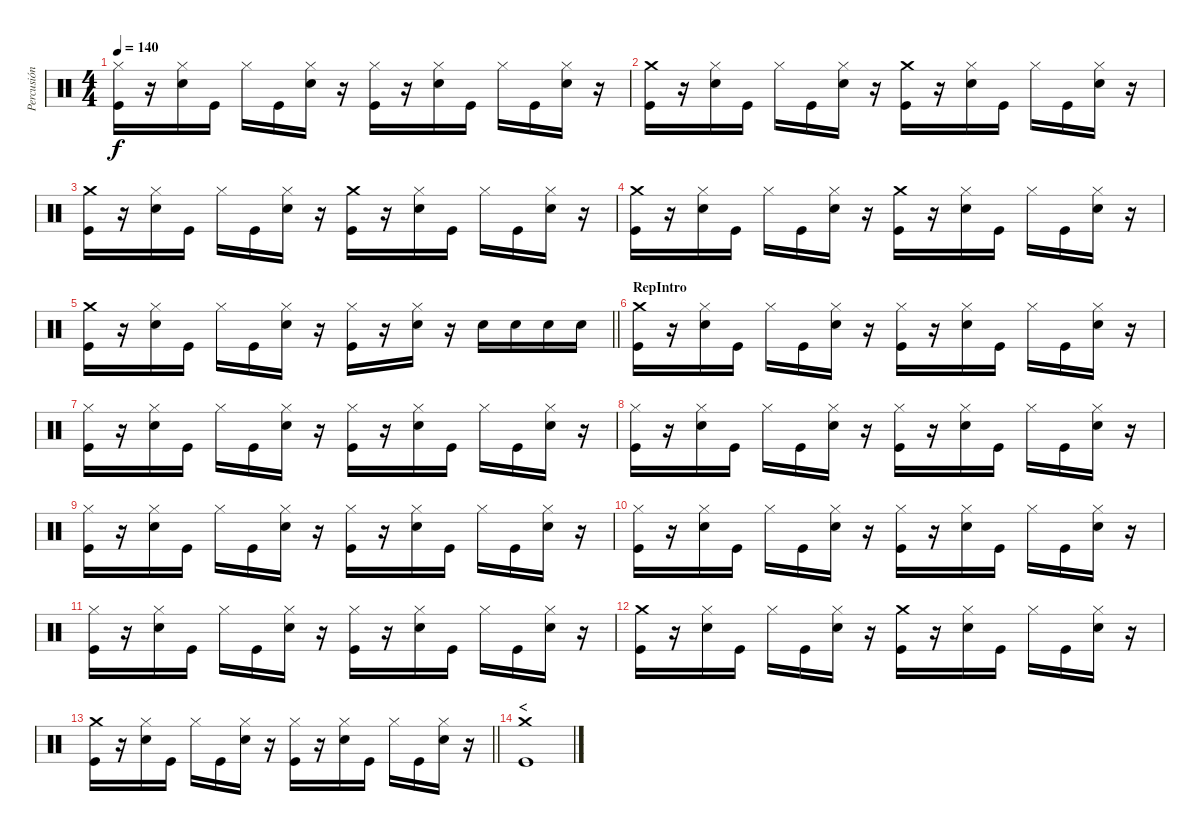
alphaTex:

\track ("Percusión" "Percusión") {instrument percussion}
\staff {score}
\articulation defaults
\ts (4 4)
\tempo 140
\clef neutral
\ks c
("Hi-Hat (closed)" "Kick (hit)").16{dy f} r.16 ("Hi-Hat (closed)" "Snare (hit) 2").16 "Kick (hit)".16 "Hi-Hat (closed)".16 "Kick (hit)".16 ("Hi-Hat (closed)" "Snare (hit) 2").16 r.16 ("Hi-Hat (closed)" "Kick (hit)").16 r.16 ("Hi-Hat (closed)" "Snare (hit) 2").16 "Kick (hit)".16 "Hi-Hat (closed)".16 "Kick (hit)".16 ("Hi-Hat (closed)" "Snare (hit) 2").16 r.16 |
("Crash medium (hit)" "Kick (hit)").16 r.16 ("Hi-Hat (closed)" "Snare (hit) 2").16 "Kick (hit)".16 "Hi-Hat (closed)".16 "Kick (hit)".16 ("Hi-Hat (closed)" "Snare (hit) 2").16 r.16 ("Crash medium (hit)" "Kick (hit)").16 r.16 ("Hi-Hat (closed)" "Snare (hit) 2").16 "Kick (hit)".16 "Hi-Hat (closed)".16 "Kick (hit)".16 ("Hi-Hat (closed)" "Snare (hit) 2").16 r.16 |
("Crash medium (hit)" "Kick (hit)").16 r.16 ("Hi-Hat (closed)" "Snare (hit) 2").16 "Kick (hit)".16 "Hi-Hat (closed)".16 "Kick (hit)".16 ("Hi-Hat (closed)" "Snare (hit) 2").16 r.16 ("Crash medium (hit)" "Kick (hit)").16 r.16 ("Hi-Hat (closed)" "Snare (hit) 2").16 "Kick (hit)".16 "Hi-Hat (closed)".16 "Kick (hit)".16 ("Hi-Hat (closed)" "Snare (hit) 2").16 r.16 |
("Crash medium (hit)" "Kick (hit)").16 r.16 ("Hi-Hat (closed)" "Snare (hit) 2").16 "Kick (hit)".16 "Hi-Hat (closed)".16 "Kick (hit)".16 ("Hi-Hat (closed)" "Snare (hit) 2").16 r.16 ("Crash medium (hit)" "Kick (hit)").16 r.16 ("Hi-Hat (closed)" "Snare (hit) 2").16 "Kick (hit)".16 "Hi-Hat (closed)".16 "Kick (hit)".16 ("Hi-Hat (closed)" "Snare (hit) 2").16 r.16 |
\barLineRight lightlight
("Crash medium (hit)" "Kick (hit)").16 r.16 ("Hi-Hat (closed)" "Snare (hit) 2").16 "Kick (hit)".16 "Hi-Hat (closed)".16 "Kick (hit)".16 ("Hi-Hat (closed)" "Snare (hit) 2").16 r.16 ("Hi-Hat (closed)" "Kick (hit)").16 r.16 ("Hi-Hat (closed)" "Snare (hit) 2").16 r.16 "Snare (hit) 2".16 "Snare (hit) 2".16 "Snare (hit) 2".16 "Snare (hit) 2".16 |
\section ("" "RepIntro")
("Crash medium (hit)" "Kick (hit)").16 r.16 ("Hi-Hat (closed)" "Snare (hit) 2").16 "Kick (hit)".16 "Hi-Hat (closed)".16 "Kick (hit)".16 ("Hi-Hat (closed)" "Snare (hit) 2").16 r.16 ("Hi-Hat (closed)" "Kick (hit)").16 r.16 ("Hi-Hat (closed)" "Snare (hit) 2").16 "Kick (hit)".16 "Hi-Hat (closed)".16 "Kick (hit)".16 ("Hi-Hat (closed)" "Snare (hit) 2").16 r.16 |
("Hi-Hat (closed)" "Kick (hit)").16 r.16 ("Hi-Hat (closed)" "Snare (hit) 2").16 "Kick (hit)".16 "Hi-Hat (closed)".16 "Kick (hit)".16 ("Hi-Hat (closed)" "Snare (hit) 2").16 r.16 ("Hi-Hat (closed)" "Kick (hit)").16 r.16 ("Hi-Hat (closed)" "Snare (hit) 2").16 "Kick (hit)".16 "Hi-Hat (closed)".16 "Kick (hit)".16 ("Hi-Hat (closed)" "Snare (hit) 2").16 r.16 |
("Hi-Hat (closed)" "Kick (hit)").16 r.16 ("Hi-Hat (closed)" "Snare (hit) 2").16 "Kick (hit)".16 "Hi-Hat (closed)".16 "Kick (hit)".16 ("Hi-Hat (closed)" "Snare (hit) 2").16 r.16 ("Hi-Hat (closed)" "Kick (hit)").16 r.16 ("Hi-Hat (closed)" "Snare (hit) 2").16 "Kick (hit)".16 "Hi-Hat (closed)".16 "Kick (hit)".16 ("Hi-Hat (closed)" "Snare (hit) 2").16 r.16 |
("Hi-Hat (closed)" "Kick (hit)").16 r.16 ("Hi-Hat (closed)" "Snare (hit) 2").16 "Kick (hit)".16 "Hi-Hat (closed)".16 "Kick (hit)".16 ("Hi-Hat (closed)" "Snare (hit) 2").16 r.16 ("Hi-Hat (closed)" "Kick (hit)").16 r.16 ("Hi-Hat (closed)" "Snare (hit) 2").16 "Kick (hit)".16 "Hi-Hat (closed)".16 "Kick (hit)".16 ("Hi-Hat (closed)" "Snare (hit) 2").16 r.16 |
("Hi-Hat (closed)" "Kick (hit)").16 r.16 ("Hi-Hat (closed)" "Snare (hit) 2").16 "Kick (hit)".16 "Hi-Hat (closed)".16 "Kick (hit)".16 ("Hi-Hat (closed)" "Snare (hit) 2").16 r.16 ("Hi-Hat (closed)" "Kick (hit)").16 r.16 ("Hi-Hat (closed)" "Snare (hit) 2").16 "Kick (hit)".16 "Hi-Hat (closed)".16 "Kick (hit)".16 ("Hi-Hat (closed)" "Snare (hit) 2").16 r.16 |
("Hi-Hat (closed)" "Kick (hit)").16 r.16 ("Hi-Hat (closed)" "Snare (hit) 2").16 "Kick (hit)".16 "Hi-Hat (closed)".16 "Kick (hit)".16 ("Hi-Hat (closed)" "Snare (hit) 2").16 r.16 ("Hi-Hat (closed)" "Kick (hit)").16 r.16 ("Hi-Hat (closed)" "Snare (hit) 2").16 "Kick (hit)".16 "Hi-Hat (closed)".16 "Kick (hit)".16 ("Hi-Hat (closed)" "Snare (hit) 2").16 r.16 |
("Crash medium (hit)" "Kick (hit)").16 r.16 ("Hi-Hat (closed)" "Snare (hit) 2").16 "Kick (hit)".16 "Hi-Hat (closed)".16 "Kick (hit)".16 ("Hi-Hat (closed)" "Snare (hit) 2").16 r.16 ("Crash medium (hit)" "Kick (hit)").16 r.16 ("Hi-Hat (closed)" "Snare (hit) 2").16 "Kick (hit)".16 "Hi-Hat (closed)".16 "Kick (hit)".16 ("Hi-Hat (closed)" "Snare (hit) 2").16 r.16 |
\barLineRight lightlight
("Crash medium (hit)" "Kick (hit)").16 r.16 ("Hi-Hat (closed)" "Snare (hit) 2").16 "Kick (hit)".16 "Hi-Hat (closed)".16 "Kick (hit)".16 ("Hi-Hat (closed)" "Snare (hit) 2").16 r.16 ("Hi-Hat (closed)" "Kick (hit)").16 r.16 ("Hi-Hat (closed)" "Snare (hit) 2").16 "Kick (hit)".16 "Hi-Hat (closed)".16 "Kick (hit)".16 ("Hi-Hat (closed)" "Snare (hit) 2").16 r.16 |
\section ("" "<")
("Crash medium (hit)" "Kick (hit)").1
